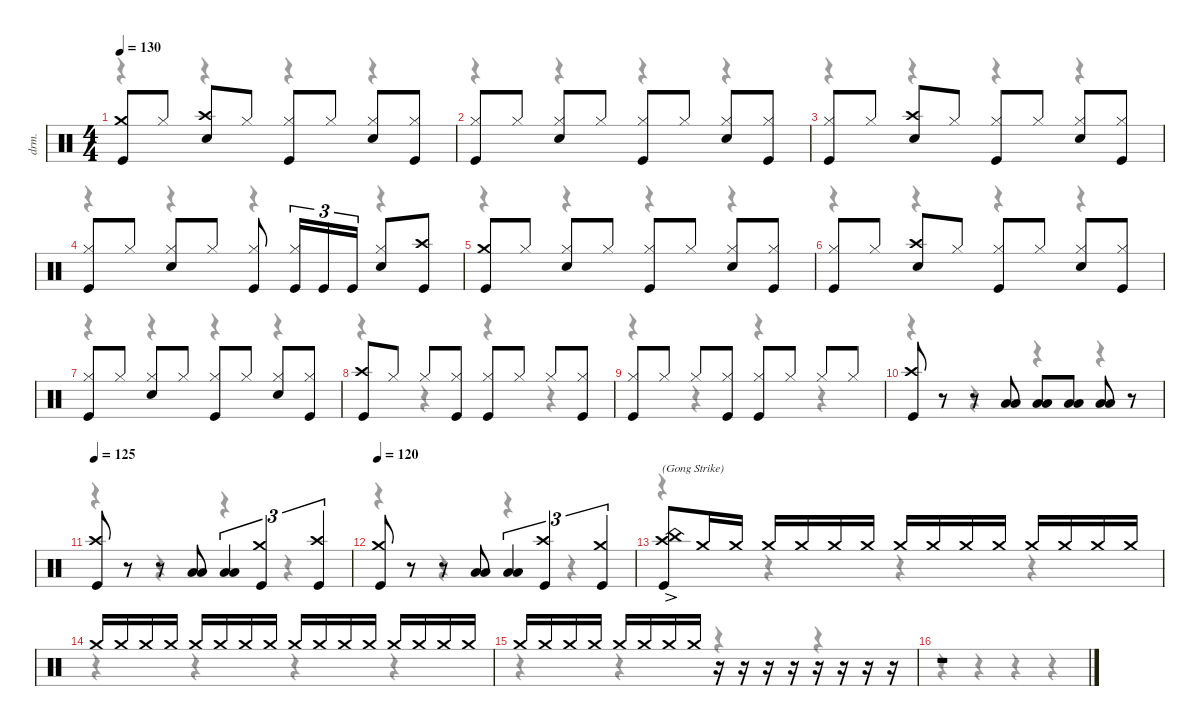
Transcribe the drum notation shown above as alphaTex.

\defaultSystemsLayout 4
\hideDynamics
\bracketExtendMode nobrackets
\track ("Lars Ulrich - Drums" "drm.") {instrument percussion}
\staff {score}
\articulation defaults
\voice
\ts (4 4)
\tempo 130
\clef neutral
\ks c
("Crash medium (hit)" "Kick (hit)").8{dy f} "Hi-Hat (closed)".8 ("Crash high (hit)" "Snare (hit) 2").8 "Hi-Hat (closed)".8 ("Hi-Hat (closed)" "Kick (hit)").8 "Hi-Hat (closed)".8 ("Hi-Hat (closed)" "Snare (hit) 2").8 ("Hi-Hat (closed)" "Kick (hit)").8 |
("Hi-Hat (closed)" "Kick (hit)").8 "Hi-Hat (closed)".8 ("Hi-Hat (closed)" "Snare (hit) 2").8 "Hi-Hat (closed)".8 ("Hi-Hat (closed)" "Kick (hit)").8 "Hi-Hat (closed)".8 ("Hi-Hat (closed)" "Snare (hit) 2").8 ("Hi-Hat (closed)" "Kick (hit)").8 |
("Hi-Hat (closed)" "Kick (hit)").8 "Hi-Hat (closed)".8 ("Crash high (hit)" "Snare (hit) 2").8 "Hi-Hat (closed)".8 ("Hi-Hat (closed)" "Kick (hit)").8 "Hi-Hat (closed)".8 ("Hi-Hat (closed)" "Snare (hit) 2").8 ("Hi-Hat (closed)" "Kick (hit)").8 |
("Hi-Hat (closed)" "Kick (hit)").8 "Hi-Hat (closed)".8 ("Hi-Hat (closed)" "Snare (hit) 2").8 "Hi-Hat (closed)".8 ("Hi-Hat (closed)" "Kick (hit)").8 ("Hi-Hat (closed)" "Kick (hit)").16{tu (3 2)} "Kick (hit)".16{tu (3 2)} "Kick (hit)".16{tu (3 2)} ("Hi-Hat (closed)" "Snare (hit) 2").8 ("Crash high (hit)" "Kick (hit)").8 |
("Crash medium (hit)" "Kick (hit)").8 "Hi-Hat (closed)".8 ("Hi-Hat (closed)" "Snare (hit) 2").8 "Hi-Hat (closed)".8 ("Hi-Hat (closed)" "Kick (hit)").8 "Hi-Hat (closed)".8 ("Hi-Hat (closed)" "Snare (hit) 2").8 ("Hi-Hat (closed)" "Kick (hit)").8 |
("Hi-Hat (closed)" "Kick (hit)").8 "Hi-Hat (closed)".8 ("Crash high (hit)" "Snare (hit) 2").8 "Hi-Hat (closed)".8 ("Hi-Hat (closed)" "Kick (hit)").8 "Hi-Hat (closed)".8 ("Hi-Hat (closed)" "Snare (hit) 2").8 ("Hi-Hat (closed)" "Kick (hit)").8 |
("Hi-Hat (closed)" "Kick (hit)").8 "Hi-Hat (closed)".8 ("Hi-Hat (closed)" "Snare (hit) 2").8 "Hi-Hat (closed)".8 ("Hi-Hat (closed)" "Kick (hit)").8 "Hi-Hat (closed)".8 ("Hi-Hat (closed)" "Snare (hit) 2").8 ("Hi-Hat (closed)" "Kick (hit)").8 |
("Crash high (hit)" "Kick (hit)").8 "Hi-Hat (closed)".8 "Hi-Hat (closed)".8 ("Hi-Hat (closed)" "Kick (hit)").8 ("Hi-Hat (closed)" "Kick (hit)").8 "Hi-Hat (closed)".8 "Hi-Hat (closed)".8 ("Hi-Hat (closed)" "Kick (hit)").8 |
("Hi-Hat (closed)" "Kick (hit)").8 "Hi-Hat (closed)".8 "Hi-Hat (closed)".8 ("Hi-Hat (closed)" "Kick (hit)").8 ("Hi-Hat (closed)" "Kick (hit)").8 "Hi-Hat (closed)".8 "Hi-Hat (closed)".8 "Hi-Hat (closed)".8 |
\tempo (130 0.875 hide)
("Crash high (hit)" "Kick (hit)").8 r.8 r.8 ("Low Tom (hit)" "Low Floor Tom (hit)").8 ("Low Tom (hit)" "Low Floor Tom (hit)").8 ("Low Tom (hit)" "Low Floor Tom (hit)").8 ("Low Tom (hit)" "Low Floor Tom (hit)").8 r.8 |
\tempo 125
("Crash high (hit)" "Kick (hit)").8 r.8 r.8 ("Low Tom (hit)" "Low Floor Tom (hit)").8 ("Low Tom (hit)" "Low Floor Tom (hit)").4{tu (3 2)} ("Crash medium (hit)" "Kick (hit)").4{tu (3 2)} ("Crash high (hit)" "Kick (hit)").4{tu (3 2)} |
\tempo 120
("Crash medium (hit)" "Kick (hit)").8 r.8 r.8 ("Low Tom (hit)" "Low Floor Tom (hit)").8 ("Low Tom (hit)" "Low Floor Tom (hit)").4{tu (3 2)} ("Crash high (hit)" "Kick (hit)").4{tu (3 2)} ("Crash medium (hit)" "Kick (hit)").4{tu (3 2)} |
("China (hit)"{ac} "Crash high (hit)" "Kick (hit)").8{txt "(Gong Strike)"} "Crash medium (hit)".16{dy ppp} "Crash medium (hit)".16 "Crash medium (hit)".16 "Crash medium (hit)".16{dy pp} "Crash medium (hit)".16 "Crash medium (hit)".16 "Crash medium (hit)".16 "Crash medium (hit)".16{dy p} "Crash medium (hit)".16 "Crash medium (hit)".16 "Crash medium (hit)".16{dy mp} "Crash medium (hit)".16 "Crash medium (hit)".16 "Crash medium (hit)".16 |
"Crash medium (hit)".16{dy mf} "Crash medium (hit)".16 "Crash medium (hit)".16 "Crash medium (hit)".16{dy f} "Crash medium (hit)".16 "Crash medium (hit)".16 "Crash medium (hit)".16 "Crash medium (hit)".16 "Crash medium (hit)".16{dy mf} "Crash medium (hit)".16 "Crash medium (hit)".16{dy mp} "Crash medium (hit)".16 "Crash medium (hit)".16 "Crash medium (hit)".16{dy p} "Crash medium (hit)".16 "Crash medium (hit)".16 |
"Crash medium (hit)".16{dy pp} "Crash medium (hit)".16 "Crash medium (hit)".16 "Crash medium (hit)".16 "Crash medium (hit)".16{dy ppp} "Crash medium (hit)".16 "Crash medium (hit)".16 "Crash medium (hit)".16 r.16 r.16 r.16 r.16 r.16 r.16 r.16 r.16 |
r.1
\voice
\clef neutral
\ottava regular
\simile none
\ks c
r.4{dy mf} r.4 r.4 r.4 |
r.4 r.4 r.4 r.4 |
r.4 r.4 r.4 r.4 |
r.4 r.4 r.4 r.4 |
r.4 r.4 r.4 r.4 |
r.4 r.4 r.4 r.4 |
r.4 r.4 r.4 r.4 |
r.4 r.4 r.4 r.4 |
r.4 r.4 r.4 r.4 |
r.4 r.4 r.4 r.4 |
r.4 r.4 r.4 r.4 |
r.4 r.4 r.4 r.4 |
r.4 r.4 r.4 r.4 |
r.4 r.4 r.4 r.4 |
r.4 r.4 r.4 r.4 |
r.4 r.4 r.4 r.4
